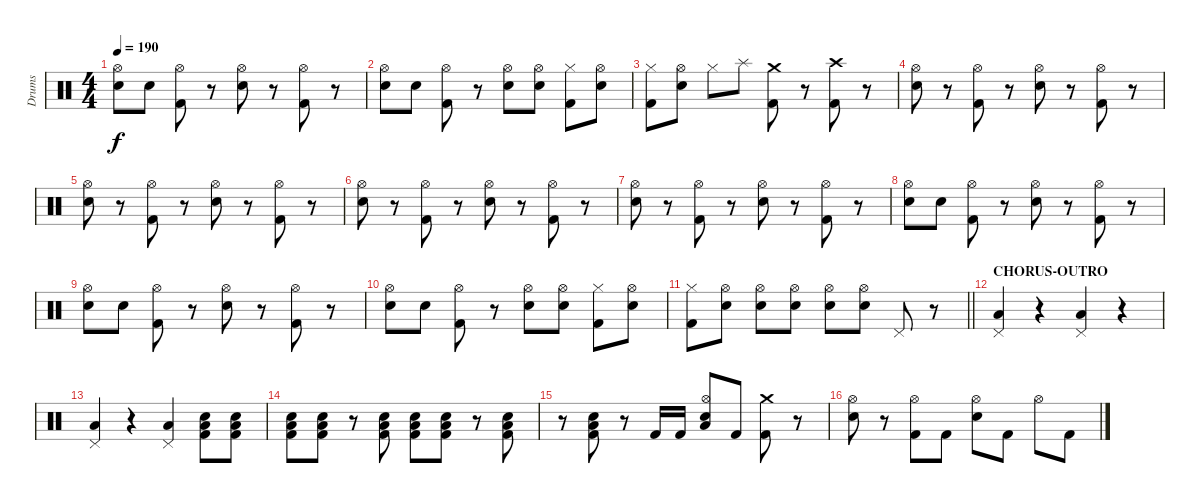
\track ("Drums" "Drums") {instrument percussion}
\staff {score}
\articulation defaults
\ts (4 4)
\tempo 190
\clef neutral
\ks c
("Snare (hit) 2" "Hi-Hat (open)").8{dy f} "Snare (hit) 2".8 ("Kick (hit) 2" "Hi-Hat (open)").8 r.8 ("Snare (hit) 2" "Hi-Hat (open)").8 r.8 ("Kick (hit) 2" "Hi-Hat (open)").8 r.8 |
("Snare (hit) 2" "Hi-Hat (open)").8 "Snare (hit) 2".8 ("Kick (hit) 2" "Hi-Hat (open)").8 r.8 ("Snare (hit) 2" "Hi-Hat (open)").8 ("Snare (hit) 2" "Hi-Hat (open)").8 ("Kick (hit) 2" "Hi-Hat (closed)").8 ("Snare (hit) 2" "Hi-Hat (open)").8 |
("Kick (hit) 2" "Hi-Hat (closed)").8 ("Snare (hit) 2" "Hi-Hat (open)").8 "Hi-Hat (closed)".8 "Splash (hit)".8 ("Kick (hit) 2" "Crash medium (hit)").8 r.8 ("Kick (hit) 2" "Crash high (hit)").8 r.8 |
("Snare (hit) 2" "Hi-Hat (open)").8 r.8 ("Kick (hit) 2" "Hi-Hat (open)").8 r.8 ("Snare (hit) 2" "Hi-Hat (open)").8 r.8 ("Kick (hit) 2" "Hi-Hat (open)").8 r.8 |
("Snare (hit) 2" "Hi-Hat (open)").8 r.8 ("Kick (hit) 2" "Hi-Hat (open)").8 r.8 ("Snare (hit) 2" "Hi-Hat (open)").8 r.8 ("Kick (hit) 2" "Hi-Hat (open)").8 r.8 |
("Snare (hit) 2" "Hi-Hat (open)").8 r.8 ("Kick (hit) 2" "Hi-Hat (open)").8 r.8 ("Snare (hit) 2" "Hi-Hat (open)").8 r.8 ("Kick (hit) 2" "Hi-Hat (open)").8 r.8 |
("Snare (hit) 2" "Hi-Hat (open)").8 r.8 ("Kick (hit) 2" "Hi-Hat (open)").8 r.8 ("Snare (hit) 2" "Hi-Hat (open)").8 r.8 ("Kick (hit) 2" "Hi-Hat (open)").8 r.8 |
("Snare (hit) 2" "Hi-Hat (open)").8 "Snare (hit) 2".8 ("Kick (hit) 2" "Hi-Hat (open)").8 r.8 ("Snare (hit) 2" "Hi-Hat (open)").8 r.8 ("Kick (hit) 2" "Hi-Hat (open)").8 r.8 |
("Snare (hit) 2" "Hi-Hat (open)").8 "Snare (hit) 2".8 ("Kick (hit) 2" "Hi-Hat (open)").8 r.8 ("Snare (hit) 2" "Hi-Hat (open)").8 r.8 ("Kick (hit) 2" "Hi-Hat (open)").8 r.8 |
("Snare (hit) 2" "Hi-Hat (open)").8 "Snare (hit) 2".8 ("Kick (hit) 2" "Hi-Hat (open)").8 r.8 ("Snare (hit) 2" "Hi-Hat (open)").8 ("Snare (hit) 2" "Hi-Hat (open)").8 ("Kick (hit) 2" "Hi-Hat (closed)").8 ("Snare (hit) 2" "Hi-Hat (open)").8 |
\barLineRight lightlight
("Kick (hit) 2" "Hi-Hat (closed)").8 ("Snare (hit) 2" "Hi-Hat (open)").8 ("Snare (hit) 2" "Hi-Hat (open)").8 ("Snare (hit) 2" "Hi-Hat (open)").8 ("Snare (hit) 2" "Hi-Hat (open)").8 ("Snare (hit) 2" "Hi-Hat (open)").8 "Pedal Hi-Hat (hit)".8 r.8 |
\section ("" "CHORUS-OUTRO")
("Low Floor Tom (hit)" "Pedal Hi-Hat (hit)").4 r.4 ("Low Floor Tom (hit)" "Pedal Hi-Hat (hit)").4 r.4 |
("Low Floor Tom (hit)" "Pedal Hi-Hat (hit)").4 r.4 ("Low Floor Tom (hit)" "Pedal Hi-Hat (hit)").4 ("Snare (hit) 2" "Low Floor Tom (hit)" "Kick (hit) 2").8 ("Snare (hit) 2" "Low Floor Tom (hit)" "Kick (hit) 2").8 |
("Snare (hit) 2" "Low Floor Tom (hit)" "Kick (hit) 2").8 ("Snare (hit) 2" "Low Floor Tom (hit)" "Kick (hit) 2").8 r.8 ("Snare (hit) 2" "Low Floor Tom (hit)" "Kick (hit) 2").8 ("Snare (hit) 2" "Low Floor Tom (hit)" "Kick (hit) 2").8 ("Snare (hit) 2" "Low Floor Tom (hit)" "Kick (hit) 2").8 r.8 ("Snare (hit) 2" "Low Floor Tom (hit)" "Kick (hit) 2").8 |
r.8 ("Low Floor Tom (hit)" "Snare (hit) 2" "Kick (hit) 2").8 r.8 "Kick (hit) 2".16 "Kick (hit) 2".16 ("Snare (hit) 2" "Low Floor Tom (hit)" "Hi-Hat (open)").8 "Kick (hit) 2".8 ("Kick (hit) 2" "Crash medium (hit)").8 r.8 |
("Snare (hit) 2" "Hi-Hat (open)").8 r.8 ("Kick (hit) 2" "Hi-Hat (open)").8 "Kick (hit) 2".8 ("Snare (hit) 2" "Hi-Hat (open)").8 "Kick (hit) 2".8 "Hi-Hat (open)".8 "Kick (hit) 2".8
